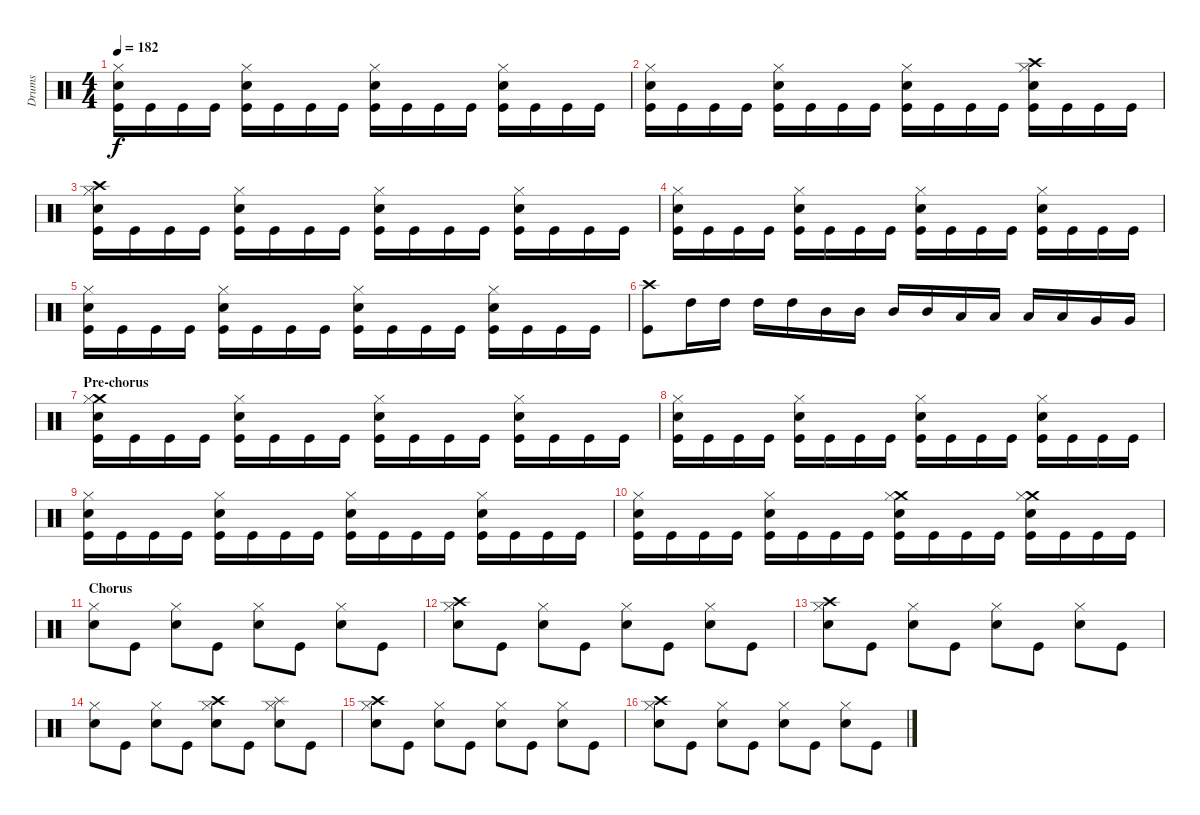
\track ("Drums" "Drums") {instrument percussion}
\staff {score}
\articulation defaults
\ts (4 4)
\tempo 182
\clef neutral
\ks c
("Hi-Hat (closed)" "Snare (hit) 2" "Kick (hit)").16{dy f} "Kick (hit)".16 "Kick (hit)".16 "Kick (hit)".16 ("Hi-Hat (closed)" "Snare (hit) 2" "Kick (hit)").16 "Kick (hit)".16 "Kick (hit)".16 "Kick (hit)".16 ("Hi-Hat (closed)" "Snare (hit) 2" "Kick (hit)").16 "Kick (hit)".16 "Kick (hit)".16 "Kick (hit)".16 ("Hi-Hat (closed)" "Snare (hit) 2" "Kick (hit)").16 "Kick (hit)".16 "Kick (hit)".16 "Kick (hit)".16 |
("Hi-Hat (closed)" "Snare (hit) 2" "Kick (hit)").16 "Kick (hit)".16 "Kick (hit)".16 "Kick (hit)".16 ("Hi-Hat (closed)" "Snare (hit) 2" "Kick (hit)").16 "Kick (hit)".16 "Kick (hit)".16 "Kick (hit)".16 ("Hi-Hat (closed)" "Snare (hit) 2" "Kick (hit)").16 "Kick (hit)".16 "Kick (hit)".16 "Kick (hit)".16 ("Crash high (hit)" "Hi-Hat (closed)" "Snare (hit) 2" "Kick (hit)").16 "Kick (hit)".16 "Kick (hit)".16 "Kick (hit)".16 |
("Crash high (hit)" "Hi-Hat (closed)" "Snare (hit) 2" "Kick (hit)").16 "Kick (hit)".16 "Kick (hit)".16 "Kick (hit)".16 ("Hi-Hat (closed)" "Snare (hit) 2" "Kick (hit)").16 "Kick (hit)".16 "Kick (hit)".16 "Kick (hit)".16 ("Hi-Hat (closed)" "Snare (hit) 2" "Kick (hit)").16 "Kick (hit)".16 "Kick (hit)".16 "Kick (hit)".16 ("Hi-Hat (closed)" "Snare (hit) 2" "Kick (hit)").16 "Kick (hit)".16 "Kick (hit)".16 "Kick (hit)".16 |
("Hi-Hat (closed)" "Snare (hit) 2" "Kick (hit)").16 "Kick (hit)".16 "Kick (hit)".16 "Kick (hit)".16 ("Hi-Hat (closed)" "Snare (hit) 2" "Kick (hit)").16 "Kick (hit)".16 "Kick (hit)".16 "Kick (hit)".16 ("Hi-Hat (closed)" "Snare (hit) 2" "Kick (hit)").16 "Kick (hit)".16 "Kick (hit)".16 "Kick (hit)".16 ("Hi-Hat (closed)" "Snare (hit) 2" "Kick (hit)").16 "Kick (hit)".16 "Kick (hit)".16 "Kick (hit)".16 |
("Hi-Hat (closed)" "Snare (hit) 2" "Kick (hit)").16 "Kick (hit)".16 "Kick (hit)".16 "Kick (hit)".16 ("Hi-Hat (closed)" "Snare (hit) 2" "Kick (hit)").16 "Kick (hit)".16 "Kick (hit)".16 "Kick (hit)".16 ("Hi-Hat (closed)" "Snare (hit) 2" "Kick (hit)").16 "Kick (hit)".16 "Kick (hit)".16 "Kick (hit)".16 ("Hi-Hat (closed)" "Snare (hit) 2" "Kick (hit)").16 "Kick (hit)".16 "Kick (hit)".16 "Kick (hit)".16 |
("Crash high (hit)" "Kick (hit)").8 "High Tom (hit)".16 "High Tom (hit)".16 "High Tom (hit)".16 "High Tom (hit)".16 "Mid Tom (hit)".16 "Mid Tom (hit)".16 "Mid Tom (hit)".16 "Mid Tom (hit)".16 "Low Tom (hit)".16 "Low Tom (hit)".16 "Low Tom (hit)".16 "Low Tom (hit)".16 "Very Low Tom (hit)".16 "Very Low Tom (hit)".16 |
\section ("" "Pre-chorus")
("Crash medium (hit)" "Hi-Hat (closed)" "Snare (hit) 2" "Kick (hit)").16 "Kick (hit)".16 "Kick (hit)".16 "Kick (hit)".16 ("Hi-Hat (closed)" "Snare (hit) 2" "Kick (hit)").16 "Kick (hit)".16 "Kick (hit)".16 "Kick (hit)".16 ("Hi-Hat (closed)" "Snare (hit) 2" "Kick (hit)").16 "Kick (hit)".16 "Kick (hit)".16 "Kick (hit)".16 ("Hi-Hat (closed)" "Snare (hit) 2" "Kick (hit)").16 "Kick (hit)".16 "Kick (hit)".16 "Kick (hit)".16 |
("Hi-Hat (closed)" "Snare (hit) 2" "Kick (hit)").16 "Kick (hit)".16 "Kick (hit)".16 "Kick (hit)".16 ("Hi-Hat (closed)" "Snare (hit) 2" "Kick (hit)").16 "Kick (hit)".16 "Kick (hit)".16 "Kick (hit)".16 ("Hi-Hat (closed)" "Snare (hit) 2" "Kick (hit)").16 "Kick (hit)".16 "Kick (hit)".16 "Kick (hit)".16 ("Hi-Hat (closed)" "Snare (hit) 2" "Kick (hit)").16 "Kick (hit)".16 "Kick (hit)".16 "Kick (hit)".16 |
("Hi-Hat (closed)" "Snare (hit) 2" "Kick (hit)").16 "Kick (hit)".16 "Kick (hit)".16 "Kick (hit)".16 ("Hi-Hat (closed)" "Snare (hit) 2" "Kick (hit)").16 "Kick (hit)".16 "Kick (hit)".16 "Kick (hit)".16 ("Hi-Hat (closed)" "Snare (hit) 2" "Kick (hit)").16 "Kick (hit)".16 "Kick (hit)".16 "Kick (hit)".16 ("Hi-Hat (closed)" "Snare (hit) 2" "Kick (hit)").16 "Kick (hit)".16 "Kick (hit)".16 "Kick (hit)".16 |
("Hi-Hat (closed)" "Snare (hit) 2" "Kick (hit)").16 "Kick (hit)".16 "Kick (hit)".16 "Kick (hit)".16 ("Hi-Hat (closed)" "Snare (hit) 2" "Kick (hit)").16 "Kick (hit)".16 "Kick (hit)".16 "Kick (hit)".16 ("Crash medium (hit)" "Hi-Hat (closed)" "Snare (hit) 2" "Kick (hit)").16 "Kick (hit)".16 "Kick (hit)".16 "Kick (hit)".16 ("Crash medium (hit)" "Hi-Hat (closed)" "Snare (hit) 2" "Kick (hit)").16 "Kick (hit)".16 "Kick (hit)".16 "Kick (hit)".16 |
\section ("" "Chorus")
("Hi-Hat (closed)" "Snare (hit) 2").8 "Kick (hit)".8 ("Hi-Hat (closed)" "Snare (hit) 2").8 "Kick (hit)".8 ("Hi-Hat (closed)" "Snare (hit) 2").8 "Kick (hit)".8 ("Hi-Hat (closed)" "Snare (hit) 2").8 "Kick (hit)".8 |
("Crash high (hit)" "Hi-Hat (closed)" "Snare (hit) 2").8 "Kick (hit)".8 ("Hi-Hat (closed)" "Snare (hit) 2").8 "Kick (hit)".8 ("Hi-Hat (closed)" "Snare (hit) 2").8 "Kick (hit)".8 ("Hi-Hat (closed)" "Snare (hit) 2").8 "Kick (hit)".8 |
("Crash high (hit)" "Hi-Hat (closed)" "Snare (hit) 2").8 "Kick (hit)".8 ("Hi-Hat (closed)" "Snare (hit) 2").8 "Kick (hit)".8 ("Hi-Hat (closed)" "Snare (hit) 2").8 "Kick (hit)".8 ("Hi-Hat (closed)" "Snare (hit) 2").8 "Kick (hit)".8 |
("Hi-Hat (closed)" "Snare (hit) 2").8 "Kick (hit)".8 ("Hi-Hat (closed)" "Snare (hit) 2").8 "Kick (hit)".8 ("Crash high (hit)" "Hi-Hat (closed)" "Snare (hit) 2").8 "Kick (hit)".8 ("Splash (hit)" "Hi-Hat (closed)" "Snare (hit) 2").8 "Kick (hit)".8 |
("Crash high (hit)" "Hi-Hat (closed)" "Snare (hit) 2").8 "Kick (hit)".8 ("Hi-Hat (closed)" "Snare (hit) 2").8 "Kick (hit)".8 ("Hi-Hat (closed)" "Snare (hit) 2").8 "Kick (hit)".8 ("Hi-Hat (closed)" "Snare (hit) 2").8 "Kick (hit)".8 |
("Crash high (hit)" "Hi-Hat (closed)" "Snare (hit) 2").8 "Kick (hit)".8 ("Hi-Hat (closed)" "Snare (hit) 2").8 "Kick (hit)".8 ("Hi-Hat (closed)" "Snare (hit) 2").8 "Kick (hit)".8 ("Hi-Hat (closed)" "Snare (hit) 2").8 "Kick (hit)".8
